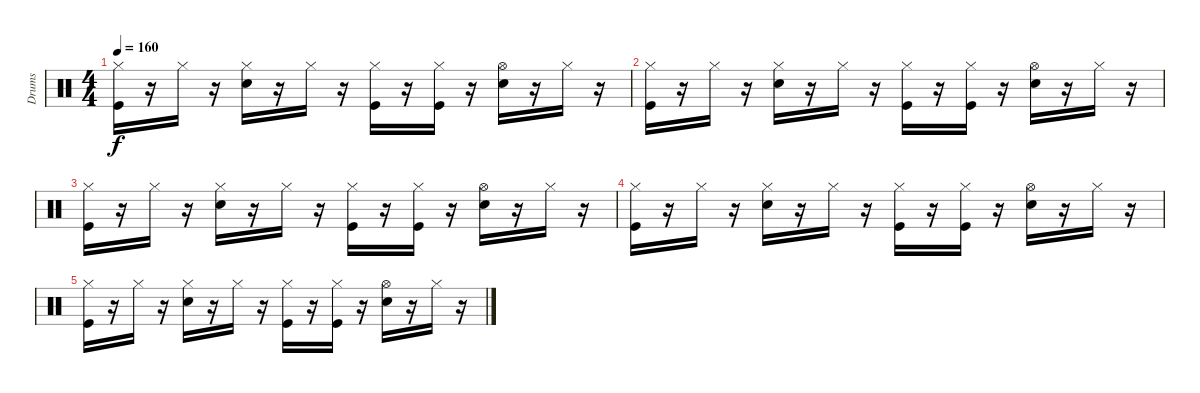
\track ("Drums" "Drums") {instrument percussion}
\staff {score}
\articulation defaults
\ts (4 4)
\tempo 160
\clef neutral
\ks c
("Hi-Hat (closed)" "Kick (hit)").16{dy f} r.16 "Hi-Hat (closed)".16 r.16 ("Hi-Hat (closed)" "Snare (hit) 2").16 r.16 "Hi-Hat (closed)".16 r.16 ("Hi-Hat (closed)" "Kick (hit)").16 r.16 ("Kick (hit)" "Hi-Hat (closed)").16 r.16 ("Hi-Hat (open)" "Snare (hit) 2").16 r.16 "Hi-Hat (closed)".16 r.16 |
("Hi-Hat (closed)" "Kick (hit)").16 r.16 "Hi-Hat (closed)".16 r.16 ("Hi-Hat (closed)" "Snare (hit) 2").16 r.16 "Hi-Hat (closed)".16 r.16 ("Hi-Hat (closed)" "Kick (hit)").16 r.16 ("Kick (hit)" "Hi-Hat (closed)").16 r.16 ("Hi-Hat (open)" "Snare (hit) 2").16 r.16 "Hi-Hat (closed)".16 r.16 |
("Hi-Hat (closed)" "Kick (hit)").16 r.16 "Hi-Hat (closed)".16 r.16 ("Hi-Hat (closed)" "Snare (hit) 2").16 r.16 "Hi-Hat (closed)".16 r.16 ("Hi-Hat (closed)" "Kick (hit)").16 r.16 ("Kick (hit)" "Hi-Hat (closed)").16 r.16 ("Hi-Hat (open)" "Snare (hit) 2").16 r.16 "Hi-Hat (closed)".16 r.16 |
("Hi-Hat (closed)" "Kick (hit)").16 r.16 "Hi-Hat (closed)".16 r.16 ("Hi-Hat (closed)" "Snare (hit) 2").16 r.16 "Hi-Hat (closed)".16 r.16 ("Hi-Hat (closed)" "Kick (hit)").16 r.16 ("Kick (hit)" "Hi-Hat (closed)").16 r.16 ("Hi-Hat (open)" "Snare (hit) 2").16 r.16 "Hi-Hat (closed)".16 r.16 |
("Hi-Hat (closed)" "Kick (hit)").16 r.16 "Hi-Hat (closed)".16 r.16 ("Hi-Hat (closed)" "Snare (hit) 2").16 r.16 "Hi-Hat (closed)".16 r.16 ("Hi-Hat (closed)" "Kick (hit)").16 r.16 ("Kick (hit)" "Hi-Hat (closed)").16 r.16 ("Hi-Hat (open)" "Snare (hit) 2").16 r.16 "Hi-Hat (closed)".16 r.16
